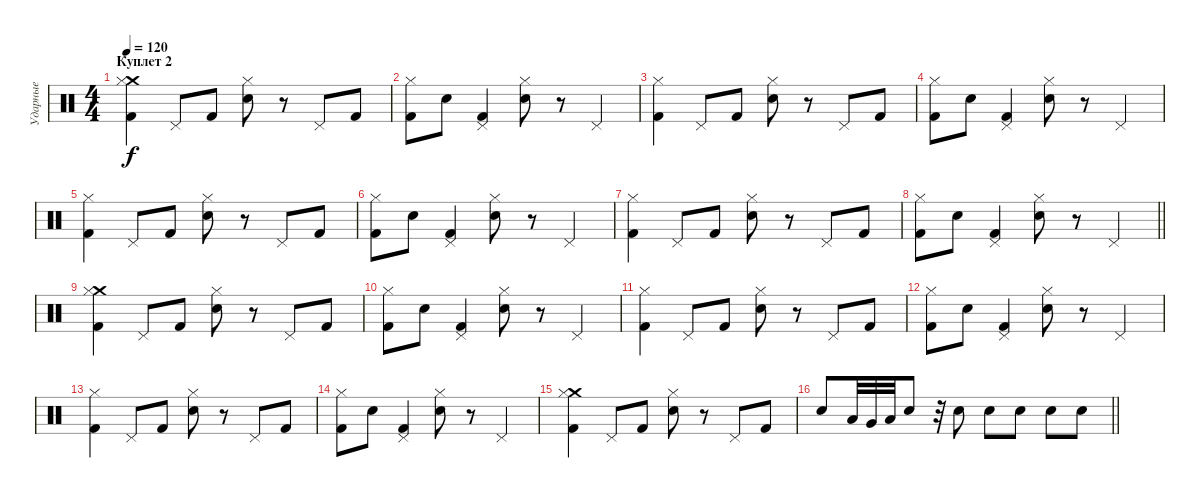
\track ("Ударные" "Ударные") {instrument percussion}
\staff {score}
\articulation defaults
\ts (4 4)
\section ("" "Куплет 2")
\tempo 120
\clef neutral
\ks c
("Kick (hit) 2" "Crash medium (hit)" "Hi-Hat (closed)").4{dy f} "Pedal Hi-Hat (hit)".8 "Kick (hit) 2".8 ("Snare (hit) 2" "Hi-Hat (closed)").8 r.8 "Pedal Hi-Hat (hit)".8 "Kick (hit) 2".8 |
("Kick (hit) 2" "Hi-Hat (closed)").8 "Snare (hit) 2".8 ("Kick (hit) 2" "Pedal Hi-Hat (hit)").4 ("Snare (hit) 2" "Hi-Hat (closed)").8 r.8 "Pedal Hi-Hat (hit)".4 |
("Kick (hit) 2" "Hi-Hat (closed)").4 "Pedal Hi-Hat (hit)".8 "Kick (hit) 2".8 ("Snare (hit) 2" "Hi-Hat (closed)").8 r.8 "Pedal Hi-Hat (hit)".8 "Kick (hit) 2".8 |
("Kick (hit) 2" "Hi-Hat (closed)").8 "Snare (hit) 2".8 ("Kick (hit) 2" "Pedal Hi-Hat (hit)").4 ("Snare (hit) 2" "Hi-Hat (closed)").8 r.8 "Pedal Hi-Hat (hit)".4 |
("Kick (hit) 2" "Hi-Hat (closed)").4 "Pedal Hi-Hat (hit)".8 "Kick (hit) 2".8 ("Snare (hit) 2" "Hi-Hat (closed)").8 r.8 "Pedal Hi-Hat (hit)".8 "Kick (hit) 2".8 |
("Kick (hit) 2" "Hi-Hat (closed)").8 "Snare (hit) 2".8 ("Kick (hit) 2" "Pedal Hi-Hat (hit)").4 ("Snare (hit) 2" "Hi-Hat (closed)").8 r.8 "Pedal Hi-Hat (hit)".4 |
("Kick (hit) 2" "Hi-Hat (closed)").4 "Pedal Hi-Hat (hit)".8 "Kick (hit) 2".8 ("Snare (hit) 2" "Hi-Hat (closed)").8 r.8 "Pedal Hi-Hat (hit)".8 "Kick (hit) 2".8 |
\barLineRight lightlight
("Kick (hit) 2" "Hi-Hat (closed)").8 "Snare (hit) 2".8 ("Kick (hit) 2" "Pedal Hi-Hat (hit)").4 ("Snare (hit) 2" "Hi-Hat (closed)").8 r.8 "Pedal Hi-Hat (hit)".4 |
("Kick (hit) 2" "Crash medium (hit)" "Hi-Hat (closed)").4 "Pedal Hi-Hat (hit)".8 "Kick (hit) 2".8 ("Snare (hit) 2" "Hi-Hat (closed)").8 r.8 "Pedal Hi-Hat (hit)".8 "Kick (hit) 2".8 |
("Kick (hit) 2" "Hi-Hat (closed)").8 "Snare (hit) 2".8 ("Kick (hit) 2" "Pedal Hi-Hat (hit)").4 ("Snare (hit) 2" "Hi-Hat (closed)").8 r.8 "Pedal Hi-Hat (hit)".4 |
("Kick (hit) 2" "Hi-Hat (closed)").4 "Pedal Hi-Hat (hit)".8 "Kick (hit) 2".8 ("Snare (hit) 2" "Hi-Hat (closed)").8 r.8 "Pedal Hi-Hat (hit)".8 "Kick (hit) 2".8 |
("Kick (hit) 2" "Hi-Hat (closed)").8 "Snare (hit) 2".8 ("Kick (hit) 2" "Pedal Hi-Hat (hit)").4 ("Snare (hit) 2" "Hi-Hat (closed)").8 r.8 "Pedal Hi-Hat (hit)".4 |
("Kick (hit) 2" "Hi-Hat (closed)").4 "Pedal Hi-Hat (hit)".8 "Kick (hit) 2".8 ("Snare (hit) 2" "Hi-Hat (closed)").8 r.8 "Pedal Hi-Hat (hit)".8 "Kick (hit) 2".8 |
("Kick (hit) 2" "Hi-Hat (closed)").8 "Snare (hit) 2".8 ("Kick (hit) 2" "Pedal Hi-Hat (hit)").4 ("Snare (hit) 2" "Hi-Hat (closed)").8 r.8 "Pedal Hi-Hat (hit)".4 |
("Kick (hit) 2" "Crash medium (hit)" "Hi-Hat (closed)").4 "Pedal Hi-Hat (hit)".8 "Kick (hit) 2".8 ("Snare (hit) 2" "Hi-Hat (closed)").8 r.8 "Pedal Hi-Hat (hit)".8 "Kick (hit) 2".8 |
\barLineRight lightlight "Snare (hit) 2".8 "Low Tom (hit)".32 "Very Low Tom (hit)".32 "Low Floor Tom (hit)".32 "Snare (hit) 2".8
r.32 "Snare (hit) 2".8 "Snare (hit) 2".8 "Snare (hit) 2".8 "Snare (hit) 2".8 "Snare (hit) 2".8
